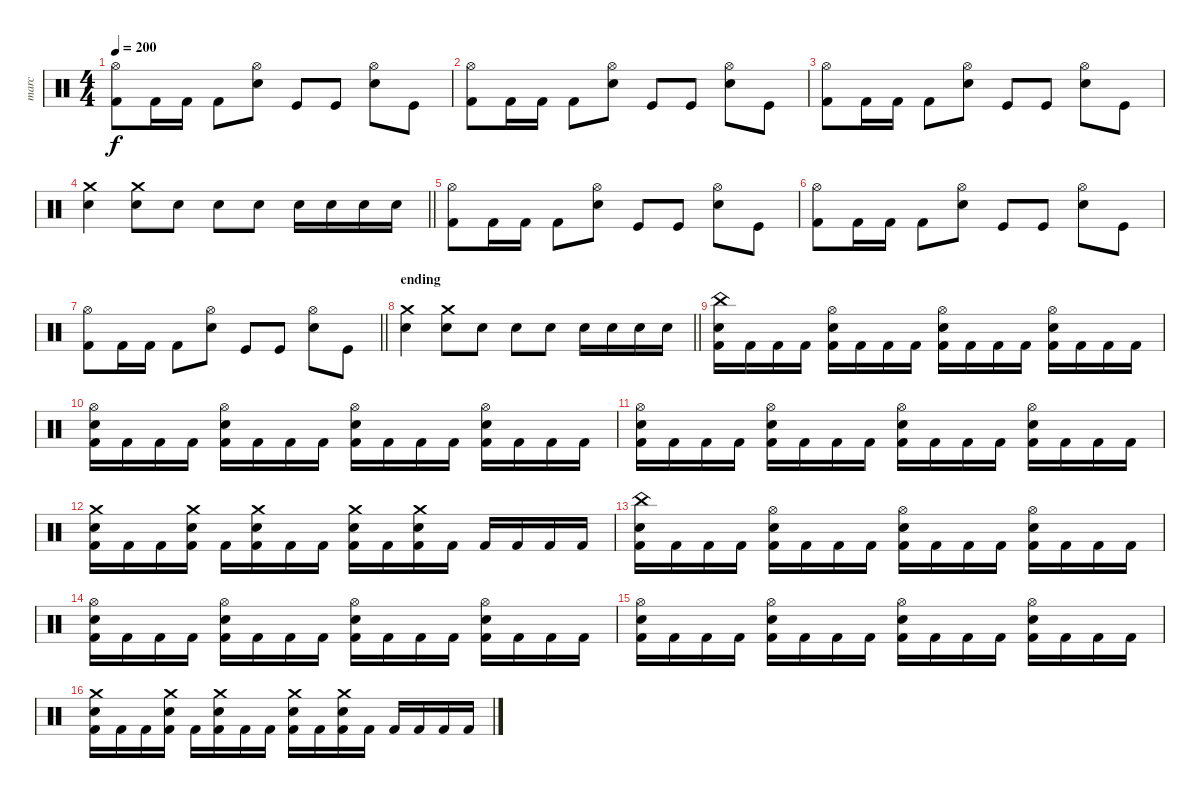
\track ("marc" "marc") {instrument percussion}
\staff {score}
\articulation defaults
\ts (4 4)
\tempo 200
\clef neutral
\ks c
("Hi-Hat (open)" "Kick (hit) 2").8{dy f} "Kick (hit) 2".16 "Kick (hit) 2".16 "Kick (hit) 2".8 ("Hi-Hat (open)" "Snare (hit) 2").8 "Kick (hit)".8 "Kick (hit)".8 ("Hi-Hat (open)" "Snare (hit) 2").8 "Kick (hit)".8 |
("Hi-Hat (open)" "Kick (hit) 2").8 "Kick (hit) 2".16 "Kick (hit) 2".16 "Kick (hit) 2".8 ("Hi-Hat (open)" "Snare (hit) 2").8 "Kick (hit)".8 "Kick (hit)".8 ("Hi-Hat (open)" "Snare (hit) 2").8 "Kick (hit)".8 |
("Hi-Hat (open)" "Kick (hit) 2").8 "Kick (hit) 2".16 "Kick (hit) 2".16 "Kick (hit) 2".8 ("Hi-Hat (open)" "Snare (hit) 2").8 "Kick (hit)".8 "Kick (hit)".8 ("Hi-Hat (open)" "Snare (hit) 2").8 "Kick (hit)".8 |
\barLineRight lightlight
("Crash medium (hit)" "Snare (hit) 2").4 ("Crash medium (hit)" "Snare (hit) 2").8 "Snare (hit) 2".8 "Snare (hit) 2".8 "Snare (hit) 2".8 "Snare (hit) 2".16 "Snare (hit) 2".16 "Snare (hit) 2".16 "Snare (hit) 2".16 |
("Hi-Hat (open)" "Kick (hit) 2").8 "Kick (hit) 2".16 "Kick (hit) 2".16 "Kick (hit) 2".8 ("Hi-Hat (open)" "Snare (hit) 2").8 "Kick (hit)".8 "Kick (hit)".8 ("Hi-Hat (open)" "Snare (hit) 2").8 "Kick (hit)".8 |
("Hi-Hat (open)" "Kick (hit) 2").8 "Kick (hit) 2".16 "Kick (hit) 2".16 "Kick (hit) 2".8 ("Hi-Hat (open)" "Snare (hit) 2").8 "Kick (hit)".8 "Kick (hit)".8 ("Hi-Hat (open)" "Snare (hit) 2").8 "Kick (hit)".8 |
\barLineRight lightlight
("Hi-Hat (open)" "Kick (hit) 2").8 "Kick (hit) 2".16 "Kick (hit) 2".16 "Kick (hit) 2".8 ("Hi-Hat (open)" "Snare (hit) 2").8 "Kick (hit)".8 "Kick (hit)".8 ("Hi-Hat (open)" "Snare (hit) 2").8 "Kick (hit)".8 |
\section ("" "ending")
\barLineRight lightlight
("Crash medium (hit)" "Snare (hit) 2").4 ("Crash medium (hit)" "Snare (hit) 2").8 "Snare (hit) 2".8 "Snare (hit) 2".8 "Snare (hit) 2".8 "Snare (hit) 2".16 "Snare (hit) 2".16 "Snare (hit) 2".16 "Snare (hit) 2".16 |
("China (hit)" "Snare (hit) 2" "Kick (hit) 2").16 "Kick (hit) 2".16 "Kick (hit) 2".16 "Kick (hit) 2".16 ("Hi-Hat (open)" "Snare (hit) 2" "Kick (hit) 2").16 "Kick (hit) 2".16 "Kick (hit) 2".16 "Kick (hit) 2".16 ("Hi-Hat (open)" "Snare (hit) 2" "Kick (hit) 2").16 "Kick (hit) 2".16 "Kick (hit) 2".16 "Kick (hit) 2".16 ("Hi-Hat (open)" "Snare (hit) 2" "Kick (hit) 2").16 "Kick (hit) 2".16 "Kick (hit) 2".16 "Kick (hit) 2".16 |
("Hi-Hat (open)" "Snare (hit) 2" "Kick (hit) 2").16 "Kick (hit) 2".16 "Kick (hit) 2".16 "Kick (hit) 2".16 ("Hi-Hat (open)" "Snare (hit) 2" "Kick (hit) 2").16 "Kick (hit) 2".16 "Kick (hit) 2".16 "Kick (hit) 2".16 ("Hi-Hat (open)" "Snare (hit) 2" "Kick (hit) 2").16 "Kick (hit) 2".16 "Kick (hit) 2".16 "Kick (hit) 2".16 ("Hi-Hat (open)" "Snare (hit) 2" "Kick (hit) 2").16 "Kick (hit) 2".16 "Kick (hit) 2".16 "Kick (hit) 2".16 |
("Hi-Hat (open)" "Snare (hit) 2" "Kick (hit) 2").16 "Kick (hit) 2".16 "Kick (hit) 2".16 "Kick (hit) 2".16 ("Hi-Hat (open)" "Snare (hit) 2" "Kick (hit) 2").16 "Kick (hit) 2".16 "Kick (hit) 2".16 "Kick (hit) 2".16 ("Hi-Hat (open)" "Snare (hit) 2" "Kick (hit) 2").16 "Kick (hit) 2".16 "Kick (hit) 2".16 "Kick (hit) 2".16 ("Hi-Hat (open)" "Snare (hit) 2" "Kick (hit) 2").16 "Kick (hit) 2".16 "Kick (hit) 2".16 "Kick (hit) 2".16 |
("Crash medium (hit)" "Snare (hit) 2" "Kick (hit) 2").16 "Kick (hit) 2".16 "Kick (hit) 2".16 ("Crash medium (hit)" "Snare (hit) 2" "Kick (hit) 2").16 "Kick (hit) 2".16 ("Crash medium (hit)" "Snare (hit) 2" "Kick (hit) 2").16 "Kick (hit) 2".16 "Kick (hit) 2".16 ("Crash medium (hit)" "Snare (hit) 2" "Kick (hit) 2").16 "Kick (hit) 2".16 ("Crash medium (hit)" "Snare (hit) 2" "Kick (hit) 2").16 "Kick (hit) 2".16 "Kick (hit) 2".16 "Kick (hit) 2".16 "Kick (hit) 2".16 "Kick (hit) 2".16 |
("China (hit)" "Snare (hit) 2" "Kick (hit) 2").16 "Kick (hit) 2".16 "Kick (hit) 2".16 "Kick (hit) 2".16 ("Hi-Hat (open)" "Snare (hit) 2" "Kick (hit) 2").16 "Kick (hit) 2".16 "Kick (hit) 2".16 "Kick (hit) 2".16 ("Hi-Hat (open)" "Snare (hit) 2" "Kick (hit) 2").16 "Kick (hit) 2".16 "Kick (hit) 2".16 "Kick (hit) 2".16 ("Hi-Hat (open)" "Snare (hit) 2" "Kick (hit) 2").16 "Kick (hit) 2".16 "Kick (hit) 2".16 "Kick (hit) 2".16 |
("Hi-Hat (open)" "Snare (hit) 2" "Kick (hit) 2").16 "Kick (hit) 2".16 "Kick (hit) 2".16 "Kick (hit) 2".16 ("Hi-Hat (open)" "Snare (hit) 2" "Kick (hit) 2").16 "Kick (hit) 2".16 "Kick (hit) 2".16 "Kick (hit) 2".16 ("Hi-Hat (open)" "Snare (hit) 2" "Kick (hit) 2").16 "Kick (hit) 2".16 "Kick (hit) 2".16 "Kick (hit) 2".16 ("Hi-Hat (open)" "Snare (hit) 2" "Kick (hit) 2").16 "Kick (hit) 2".16 "Kick (hit) 2".16 "Kick (hit) 2".16 |
("Hi-Hat (open)" "Snare (hit) 2" "Kick (hit) 2").16 "Kick (hit) 2".16 "Kick (hit) 2".16 "Kick (hit) 2".16 ("Hi-Hat (open)" "Snare (hit) 2" "Kick (hit) 2").16 "Kick (hit) 2".16 "Kick (hit) 2".16 "Kick (hit) 2".16 ("Hi-Hat (open)" "Snare (hit) 2" "Kick (hit) 2").16 "Kick (hit) 2".16 "Kick (hit) 2".16 "Kick (hit) 2".16 ("Hi-Hat (open)" "Snare (hit) 2" "Kick (hit) 2").16 "Kick (hit) 2".16 "Kick (hit) 2".16 "Kick (hit) 2".16 |
("Crash medium (hit)" "Snare (hit) 2" "Kick (hit) 2").16 "Kick (hit) 2".16 "Kick (hit) 2".16 ("Crash medium (hit)" "Snare (hit) 2" "Kick (hit) 2").16 "Kick (hit) 2".16 ("Crash medium (hit)" "Snare (hit) 2" "Kick (hit) 2").16 "Kick (hit) 2".16 "Kick (hit) 2".16 ("Crash medium (hit)" "Snare (hit) 2" "Kick (hit) 2").16 "Kick (hit) 2".16 ("Crash medium (hit)" "Snare (hit) 2" "Kick (hit) 2").16 "Kick (hit) 2".16 "Kick (hit) 2".16 "Kick (hit) 2".16 "Kick (hit) 2".16 "Kick (hit) 2".16
